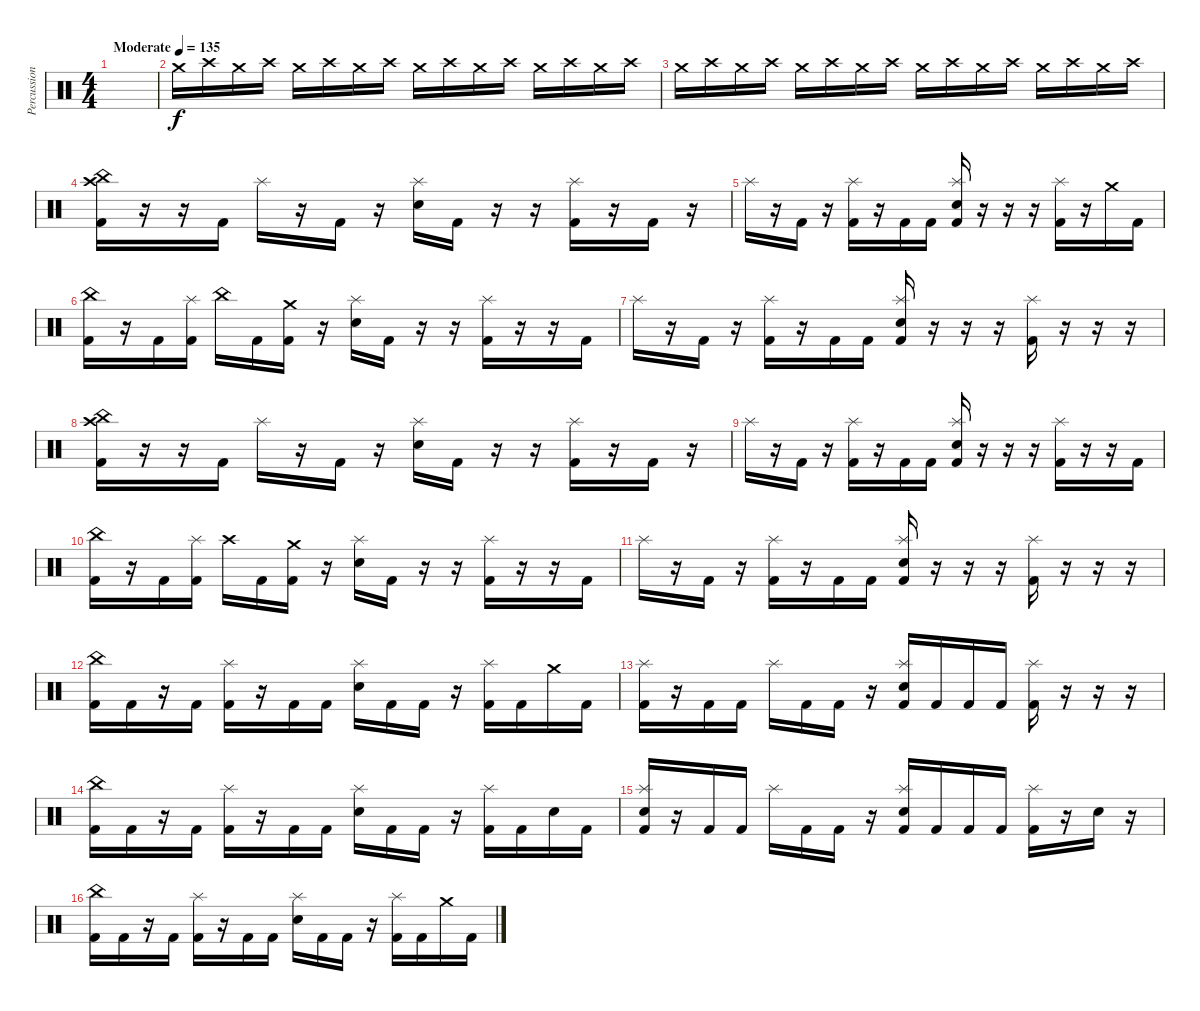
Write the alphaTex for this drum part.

\track ("Percussion" "Percussion") {instrument percussion}
\staff {score}
\articulation defaults
\ts (4 4)
\tempo (135 "Moderate")
\clef neutral
\ks c
|
"Crash medium (hit)".16{volume 13} "Crash high (hit)".16 "Crash medium (hit)".16 "Crash high (hit)".16 "Crash medium (hit)".16 "Crash high (hit)".16 "Crash medium (hit)".16 "Crash high (hit)".16 "Crash medium (hit)".16 "Crash high (hit)".16 "Crash medium (hit)".16 "Crash high (hit)".16 "Crash medium (hit)".16 "Crash high (hit)".16 "Crash medium (hit)".16 "Crash high (hit)".16 |
"Crash medium (hit)".16 "Crash high (hit)".16 "Crash medium (hit)".16 "Crash high (hit)".16 "Crash medium (hit)".16 "Crash high (hit)".16 "Crash medium (hit)".16 "Crash high (hit)".16 "Crash medium (hit)".16 "Crash high (hit)".16 "Crash medium (hit)".16 "Crash high (hit)".16 "Crash medium (hit)".16 "Crash high (hit)".16 "Crash medium (hit)".16 "Crash high (hit)".16 |
("China (hit)" "Crash high (hit)" "Kick (hit) 2").16 r.16 r.16 "Kick (hit) 2".16 "Splash (hit)".16 r.16 "Kick (hit) 2".16 r.16 ("Splash (hit)" "Electric Snare (hit)").16 "Kick (hit) 2".16 r.16 r.16 ("Splash (hit)" "Kick (hit) 2").16 r.16 "Kick (hit) 2".16 r.16 |
"Splash (hit)".16 r.16 "Kick (hit) 2".16 r.16 ("Splash (hit)" "Kick (hit) 2").16 r.16 "Kick (hit) 2".16 "Kick (hit) 2".16 ("Splash (hit)" "Electric Snare (hit)" "Kick (hit) 2").16 r.16 r.16 r.16 ("Splash (hit)" "Kick (hit) 2").16 r.16 "Crash medium (hit)".16 "Kick (hit) 2".16 |
("China (hit)" "Kick (hit) 2").16 r.16 "Kick (hit) 2".16 ("Splash (hit)" "Kick (hit) 2").16 "China (hit)".16 "Kick (hit) 2".16 ("Crash medium (hit)" "Kick (hit) 2").16 r.16 ("Splash (hit)" "Electric Snare (hit)").16 "Kick (hit) 2".16 r.16 r.16 ("Splash (hit)" "Kick (hit) 2").16 r.16 r.16 "Kick (hit) 2".16 |
"Splash (hit)".16 r.16 "Kick (hit) 2".16 r.16 ("Splash (hit)" "Kick (hit) 2").16 r.16 "Kick (hit) 2".16 "Kick (hit) 2".16 ("Splash (hit)" "Electric Snare (hit)" "Kick (hit) 2").16 r.16 r.16 r.16 ("Splash (hit)" "Kick (hit) 2").16 r.16 r.16 r.16 |
("China (hit)" "Crash high (hit)" "Kick (hit) 2").16 r.16 r.16 "Kick (hit) 2".16 "Splash (hit)".16 r.16 "Kick (hit) 2".16 r.16 ("Splash (hit)" "Electric Snare (hit)").16 "Kick (hit) 2".16 r.16 r.16 ("Splash (hit)" "Kick (hit) 2").16 r.16 "Kick (hit) 2".16 r.16 |
"Splash (hit)".16 r.16 "Kick (hit) 2".16 r.16 ("Splash (hit)" "Kick (hit) 2").16 r.16 "Kick (hit) 2".16 "Kick (hit) 2".16 ("Splash (hit)" "Electric Snare (hit)" "Kick (hit) 2").16 r.16 r.16 r.16 ("Splash (hit)" "Kick (hit) 2").16 r.16 r.16 "Kick (hit) 2".16 |
("China (hit)" "Kick (hit) 2").16 r.16 "Kick (hit) 2".16 ("Splash (hit)" "Kick (hit) 2").16 "Crash high (hit)".16 "Kick (hit) 2".16 ("Crash medium (hit)" "Kick (hit) 2").16 r.16 ("Splash (hit)" "Electric Snare (hit)").16 "Kick (hit) 2".16 r.16 r.16 ("Splash (hit)" "Kick (hit) 2").16 r.16 r.16 "Kick (hit) 2".16 |
"Splash (hit)".16 r.16 "Kick (hit) 2".16 r.16 ("Splash (hit)" "Kick (hit) 2").16 r.16 "Kick (hit) 2".16 "Kick (hit) 2".16 ("Splash (hit)" "Electric Snare (hit)" "Kick (hit) 2").16 r.16 r.16 r.16 ("Splash (hit)" "Kick (hit) 2").16 r.16 r.16 r.16 |
("China (hit)" "Kick (hit) 2").16 "Kick (hit) 2".16 r.16 "Kick (hit) 2".16 ("Splash (hit)" "Kick (hit) 2").16 r.16 "Kick (hit) 2".16 "Kick (hit) 2".16 ("Splash (hit)" "Electric Snare (hit)").16 "Kick (hit) 2".16 "Kick (hit) 2".16 r.16 ("Splash (hit)" "Kick (hit) 2").16 "Kick (hit) 2".16 "Crash medium (hit)".16 "Kick (hit) 2".16 |
("Splash (hit)" "Kick (hit) 2").16 r.16 "Kick (hit) 2".16 "Kick (hit) 2".16 "Splash (hit)".16 "Kick (hit) 2".16 "Kick (hit) 2".16 r.16 ("Splash (hit)" "Electric Snare (hit)" "Kick (hit) 2").16 "Kick (hit) 2".16 "Kick (hit) 2".16 "Kick (hit) 2".16 ("Splash (hit)" "Kick (hit) 2").16 r.16 r.16 r.16 |
("China (hit)" "Kick (hit) 2").16 "Kick (hit) 2".16 r.16 "Kick (hit) 2".16 ("Splash (hit)" "Kick (hit) 2").16 r.16 "Kick (hit) 2".16 "Kick (hit) 2".16 ("Splash (hit)" "Electric Snare (hit)").16 "Kick (hit) 2".16 "Kick (hit) 2".16 r.16 ("Splash (hit)" "Kick (hit) 2").16 "Kick (hit) 2".16 "Electric Snare (hit)".16 "Kick (hit) 2".16 |
("Splash (hit)" "Electric Snare (hit)" "Kick (hit) 2").16 r.16 "Kick (hit) 2".16 "Kick (hit) 2".16 "Splash (hit)".16 "Kick (hit) 2".16 "Kick (hit) 2".16 r.16 ("Splash (hit)" "Electric Snare (hit)" "Kick (hit) 2").16 "Kick (hit) 2".16 "Kick (hit) 2".16 "Kick (hit) 2".16 ("Splash (hit)" "Kick (hit) 2").16 r.16 "Electric Snare (hit)".16 r.16 |
("China (hit)" "Kick (hit) 2").16 "Kick (hit) 2".16 r.16 "Kick (hit) 2".16 ("Splash (hit)" "Kick (hit) 2").16 r.16 "Kick (hit) 2".16 "Kick (hit) 2".16 ("Splash (hit)" "Electric Snare (hit)").16 "Kick (hit) 2".16 "Kick (hit) 2".16 r.16 ("Splash (hit)" "Kick (hit) 2").16 "Kick (hit) 2".16 "Crash medium (hit)".16 "Kick (hit) 2".16
